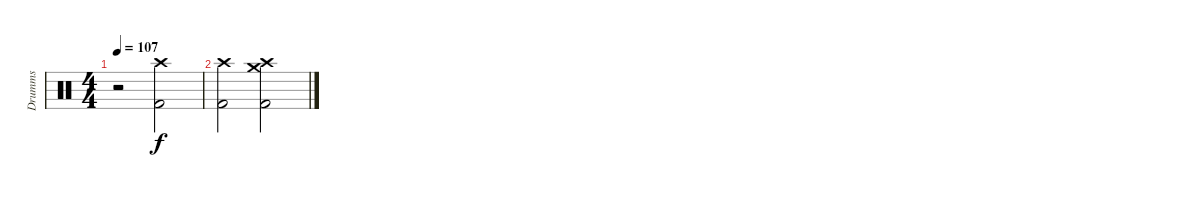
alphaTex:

\track ("Drumms" "Drumms") {instrument percussion}
\staff {score}
\articulation defaults
\ts (4 4)
\tempo 107
\clef neutral
\ks c
r.2{dy f} ("Crash high (hit)" "Kick (hit) 2").2 |
("Crash high (hit)" "Kick (hit) 2").2 ("Crash high (hit)" "Crash medium (hit)" "Kick (hit) 2").2
